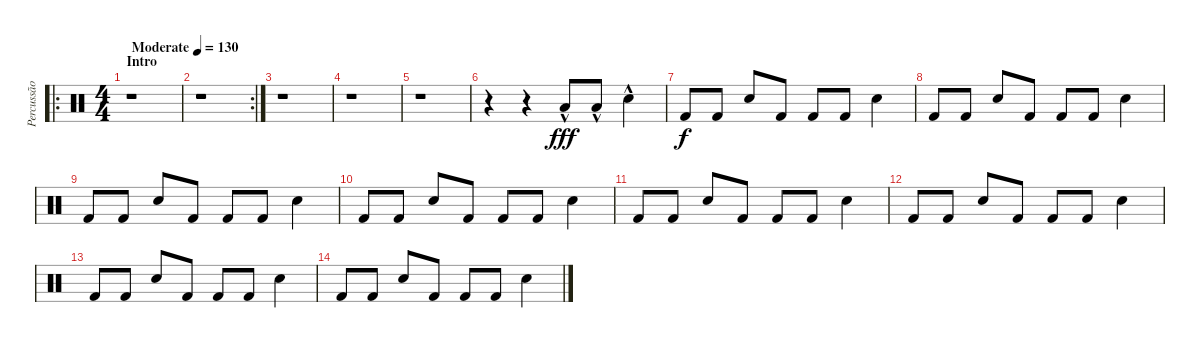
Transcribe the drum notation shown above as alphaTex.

\track ("Percussão" "Percussão") {instrument percussion}
\staff {score}
\articulation defaults
\ro
\ts (4 4)
\section ("" "Intro")
\tempo (130 "Moderate")
\clef neutral
\ks c
r.1{dy fff} |
\rc 2
r.1 |
r.1 |
r.1 |
r.1 |
r.4 r.4 "Low Floor Tom (hit)"{hac}.8 "Low Floor Tom (hit)"{hac}.8 "Electric Snare (hit)"{hac}.4 |
"Kick (hit) 2".8{dy f} "Kick (hit) 2".8 "Electric Snare (hit)".8 "Kick (hit) 2".8 "Kick (hit) 2".8 "Kick (hit) 2".8 "Electric Snare (hit)".4 |
"Kick (hit) 2".8 "Kick (hit) 2".8 "Electric Snare (hit)".8 "Kick (hit) 2".8 "Kick (hit) 2".8 "Kick (hit) 2".8 "Electric Snare (hit)".4 |
"Kick (hit) 2".8 "Kick (hit) 2".8 "Electric Snare (hit)".8 "Kick (hit) 2".8 "Kick (hit) 2".8 "Kick (hit) 2".8 "Electric Snare (hit)".4 |
"Kick (hit) 2".8 "Kick (hit) 2".8 "Electric Snare (hit)".8 "Kick (hit) 2".8 "Kick (hit) 2".8 "Kick (hit) 2".8 "Electric Snare (hit)".4 |
"Kick (hit) 2".8 "Kick (hit) 2".8 "Electric Snare (hit)".8 "Kick (hit) 2".8 "Kick (hit) 2".8 "Kick (hit) 2".8 "Electric Snare (hit)".4 |
"Kick (hit) 2".8 "Kick (hit) 2".8 "Electric Snare (hit)".8 "Kick (hit) 2".8 "Kick (hit) 2".8 "Kick (hit) 2".8 "Electric Snare (hit)".4 |
"Kick (hit) 2".8 "Kick (hit) 2".8 "Electric Snare (hit)".8 "Kick (hit) 2".8 "Kick (hit) 2".8 "Kick (hit) 2".8 "Electric Snare (hit)".4 |
"Kick (hit) 2".8 "Kick (hit) 2".8 "Electric Snare (hit)".8 "Kick (hit) 2".8 "Kick (hit) 2".8 "Kick (hit) 2".8 "Electric Snare (hit)".4
